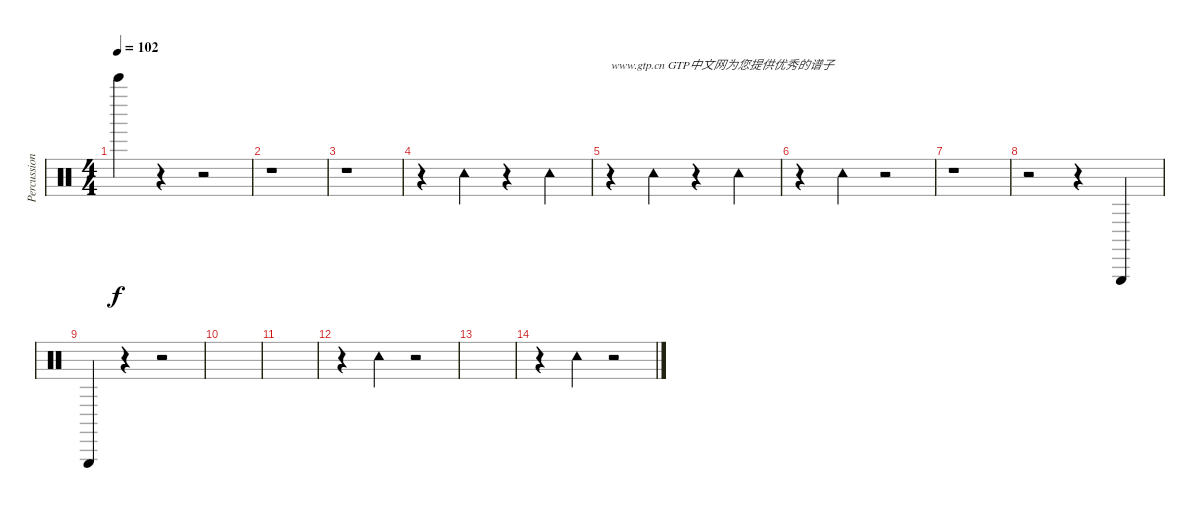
\track ("Percussion" "Percussion") {instrument percussion}
\staff {score}
\articulation defaults
\ts (4 4)
\tempo 102
\clef neutral
\ks c "Bell Tree (hit)".4{dy f}
r.4 r.2 |
r.1 |
r.1 |
r.4 "Tambourine (hit)".4 r.4 "Tambourine (hit)".4 |
r.4{txt "www.gtp.cn GTP中文网为您提供优秀的谱子"} "Tambourine (hit)".4 r.4 "Tambourine (hit)".4 |
r.4 "Tambourine (hit)".4 r.2 |
r.1 |
r.2 r.4 "Triangle (hit)".4 |
"Triangle (hit)".4 r.4 r.2 |
|
|
r.4 "Tambourine (hit)".4 r.2 |
|
r.4 "Tambourine (hit)".4 r.2
